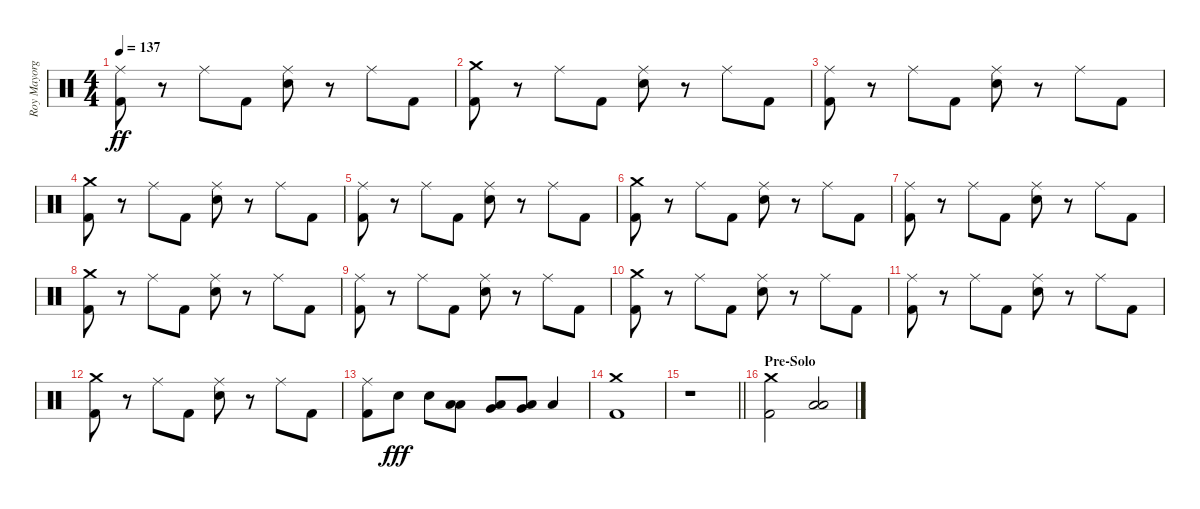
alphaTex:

\track ("Roy Mayorga (Drums)" "Roy Mayorg") {instrument percussion}
\staff {score}
\articulation defaults
\ts (4 4)
\tempo 137
\clef neutral
\ks c
("Ride (middle)" "Kick (hit) 2").8{dy ff} r.8 "Ride (middle)".8 "Kick (hit) 2".8 ("Ride (middle)" "Electric Snare (hit)").8 r.8 "Ride (middle)".8 "Kick (hit) 2".8 |
("Crash medium (hit)" "Kick (hit) 2").8 r.8 "Ride (middle)".8 "Kick (hit) 2".8 ("Ride (middle)" "Electric Snare (hit)").8 r.8 "Ride (middle)".8 "Kick (hit) 2".8 |
("Ride (middle)" "Kick (hit) 2").8 r.8 "Ride (middle)".8 "Kick (hit) 2".8 ("Ride (middle)" "Electric Snare (hit)").8 r.8 "Ride (middle)".8 "Kick (hit) 2".8 |
("Crash medium (hit)" "Kick (hit) 2").8 r.8 "Ride (middle)".8 "Kick (hit) 2".8 ("Ride (middle)" "Electric Snare (hit)").8 r.8 "Ride (middle)".8 "Kick (hit) 2".8 |
("Ride (middle)" "Kick (hit) 2").8 r.8 "Ride (middle)".8 "Kick (hit) 2".8 ("Ride (middle)" "Electric Snare (hit)").8 r.8 "Ride (middle)".8 "Kick (hit) 2".8 |
("Crash medium (hit)" "Kick (hit) 2").8 r.8 "Ride (middle)".8 "Kick (hit) 2".8 ("Ride (middle)" "Electric Snare (hit)").8 r.8 "Ride (middle)".8 "Kick (hit) 2".8 |
("Ride (middle)" "Kick (hit) 2").8 r.8 "Ride (middle)".8 "Kick (hit) 2".8 ("Ride (middle)" "Electric Snare (hit)").8 r.8 "Ride (middle)".8 "Kick (hit) 2".8 |
("Crash medium (hit)" "Kick (hit) 2").8 r.8 "Ride (middle)".8 "Kick (hit) 2".8 ("Ride (middle)" "Electric Snare (hit)").8 r.8 "Ride (middle)".8 "Kick (hit) 2".8 |
("Ride (middle)" "Kick (hit) 2").8 r.8 "Ride (middle)".8 "Kick (hit) 2".8 ("Ride (middle)" "Electric Snare (hit)").8 r.8 "Ride (middle)".8 "Kick (hit) 2".8 |
("Crash medium (hit)" "Kick (hit) 2").8 r.8 "Ride (middle)".8 "Kick (hit) 2".8 ("Ride (middle)" "Electric Snare (hit)").8 r.8 "Ride (middle)".8 "Kick (hit) 2".8 |
("Ride (middle)" "Kick (hit) 2").8 r.8 "Ride (middle)".8 "Kick (hit) 2".8 ("Ride (middle)" "Electric Snare (hit)").8 r.8 "Ride (middle)".8 "Kick (hit) 2".8 |
("Crash medium (hit)" "Kick (hit) 2").8 r.8 "Ride (middle)".8 "Kick (hit) 2".8 ("Ride (middle)" "Electric Snare (hit)").8 r.8 "Ride (middle)".8 "Kick (hit) 2".8 |
("Ride (middle)" "Kick (hit) 2").8 "Electric Snare (hit)".8{dy fff} "Electric Snare (hit)".8 ("Low Tom (hit)" "Low Floor Tom (hit)").8 ("Low Tom (hit)" "Very Low Tom (hit)").8 ("Very Low Tom (hit)" "Low Floor Tom (hit)").8 "Low Floor Tom (hit)".4 |
("Crash medium (hit)" "Kick (hit) 2").1 |
\barLineRight lightlight
r.1 |
\section ("" "Pre-Solo")
("Crash medium (hit)" "Kick (hit) 2").2 ("Low Tom (hit)" "Low Floor Tom (hit)").2
